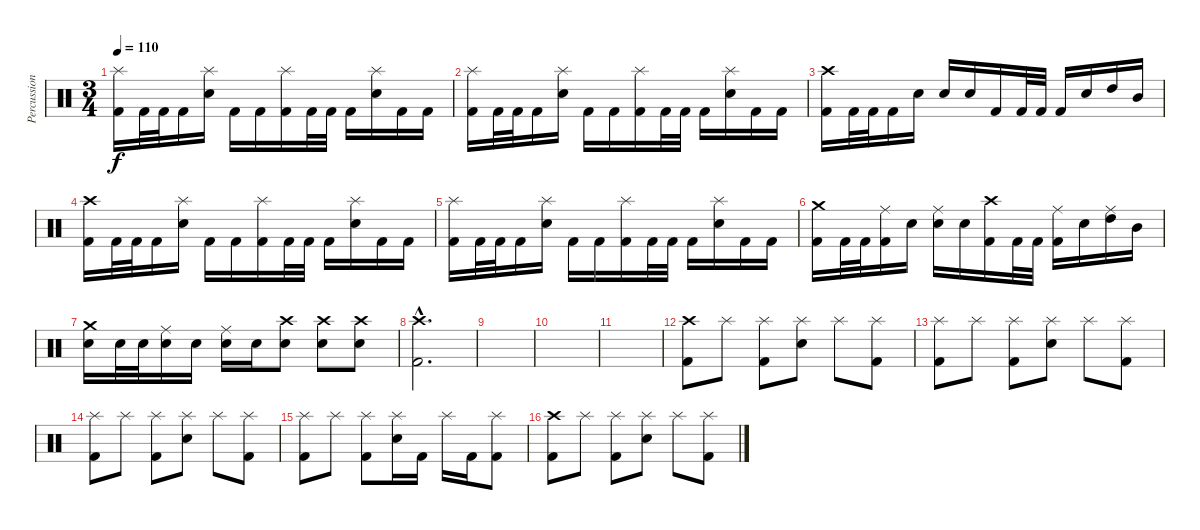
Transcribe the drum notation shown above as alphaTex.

\track ("Percussion" "Percussion") {instrument percussion}
\staff {score}
\articulation defaults
\ts (3 4)
\tempo 110
\clef neutral
\ks c
("Splash (hit)" "Kick (hit) 2").16{dy f} "Kick (hit) 2".32 "Kick (hit) 2".32 "Kick (hit) 2".16 ("Splash (hit)" "Electric Snare (hit)").16 "Kick (hit) 2".16 "Kick (hit) 2".16 ("Splash (hit)" "Kick (hit) 2").16 "Kick (hit) 2".32 "Kick (hit) 2".32 "Kick (hit) 2".16 ("Splash (hit)" "Electric Snare (hit)").16 "Kick (hit) 2".16 "Kick (hit) 2".16 |
("Splash (hit)" "Kick (hit) 2").16 "Kick (hit) 2".32 "Kick (hit) 2".32 "Kick (hit) 2".16 ("Splash (hit)" "Electric Snare (hit)").16 "Kick (hit) 2".16 "Kick (hit) 2".16 ("Splash (hit)" "Kick (hit) 2").16 "Kick (hit) 2".32 "Kick (hit) 2".32 "Kick (hit) 2".16 ("Splash (hit)" "Electric Snare (hit)").16 "Kick (hit) 2".16 "Kick (hit) 2".16 |
("Crash high (hit)" "Kick (hit) 2").16 "Kick (hit) 2".32 "Kick (hit) 2".32 "Kick (hit) 2".16 "Electric Snare (hit)".16 "Electric Snare (hit)".16 "Electric Snare (hit)".16 "Kick (hit) 2".16 "Kick (hit) 2".32 "Kick (hit) 2".32 "Kick (hit) 2".16 "Electric Snare (hit)".16 "High Tom (hit)".16 "Mid Tom (hit)".16 |
("Crash high (hit)" "Kick (hit) 2").16 "Kick (hit) 2".32 "Kick (hit) 2".32 "Kick (hit) 2".16 ("Splash (hit)" "Electric Snare (hit)").16 "Kick (hit) 2".16 "Kick (hit) 2".16 ("Splash (hit)" "Kick (hit) 2").16 "Kick (hit) 2".32 "Kick (hit) 2".32 "Kick (hit) 2".16 ("Splash (hit)" "Electric Snare (hit)").16 "Kick (hit) 2".16 "Kick (hit) 2".16 |
("Splash (hit)" "Kick (hit) 2").16 "Kick (hit) 2".32 "Kick (hit) 2".32 "Kick (hit) 2".16 ("Splash (hit)" "Electric Snare (hit)").16 "Kick (hit) 2".16 "Kick (hit) 2".16 ("Splash (hit)" "Kick (hit) 2").16 "Kick (hit) 2".32 "Kick (hit) 2".32 "Kick (hit) 2".16 ("Splash (hit)" "Electric Snare (hit)").16 "Kick (hit) 2".16 "Kick (hit) 2".16 |
("Crash medium (hit)" "Kick (hit) 2").16 "Kick (hit) 2".32 "Kick (hit) 2".32 ("Ride (middle)" "Kick (hit) 2").16 "Electric Snare (hit)".16 ("Ride (middle)" "Electric Snare (hit)").16 "Electric Snare (hit)".16 ("Crash high (hit)" "Kick (hit) 2").16 "Kick (hit) 2".32 "Kick (hit) 2".32 ("Ride (middle)" "Kick (hit) 2").16 "Electric Snare (hit)".16 ("Ride (middle)" "High Tom (hit)").16 "Mid Tom (hit)".16 |
("Crash medium (hit)" "Electric Snare (hit)").16 "Electric Snare (hit)".32 "Electric Snare (hit)".32 ("Ride (middle)" "Electric Snare (hit)").16 "Electric Snare (hit)".16 ("Ride (middle)" "Electric Snare (hit)").16 "Electric Snare (hit)".16 ("Crash high (hit)" "Electric Snare (hit)").8 ("Crash high (hit)" "Electric Snare (hit)").8 ("Crash high (hit)" "Electric Snare (hit)").8 |
("Crash high (hit)"{hac} "Kick (hit) 2"{hac}).2{d} |
|
|
|
("Crash high (hit)" "Kick (hit) 2").8 "Splash (hit)".8 ("Splash (hit)" "Kick (hit) 2").8 ("Splash (hit)" "Electric Snare (hit)").8 "Splash (hit)".8 ("Splash (hit)" "Kick (hit) 2").8 |
("Splash (hit)" "Kick (hit) 2").8 "Splash (hit)".8 ("Splash (hit)" "Kick (hit) 2").8 ("Splash (hit)" "Electric Snare (hit)").8 "Splash (hit)".8 ("Splash (hit)" "Kick (hit) 2").8 |
("Splash (hit)" "Kick (hit) 2").8 "Splash (hit)".8 ("Splash (hit)" "Kick (hit) 2").8 ("Splash (hit)" "Electric Snare (hit)").8 "Splash (hit)".8 ("Splash (hit)" "Kick (hit) 2").8 |
("Splash (hit)" "Kick (hit) 2").8 "Splash (hit)".8 ("Splash (hit)" "Kick (hit) 2").8 ("Splash (hit)" "Electric Snare (hit)").16 "Kick (hit) 2".16 "Splash (hit)".16 "Kick (hit) 2".16 ("Splash (hit)" "Kick (hit) 2").8 |
("Crash high (hit)" "Kick (hit) 2").8 "Splash (hit)".8 ("Splash (hit)" "Kick (hit) 2").8 ("Splash (hit)" "Electric Snare (hit)").8 "Splash (hit)".8 ("Splash (hit)" "Kick (hit) 2").8
